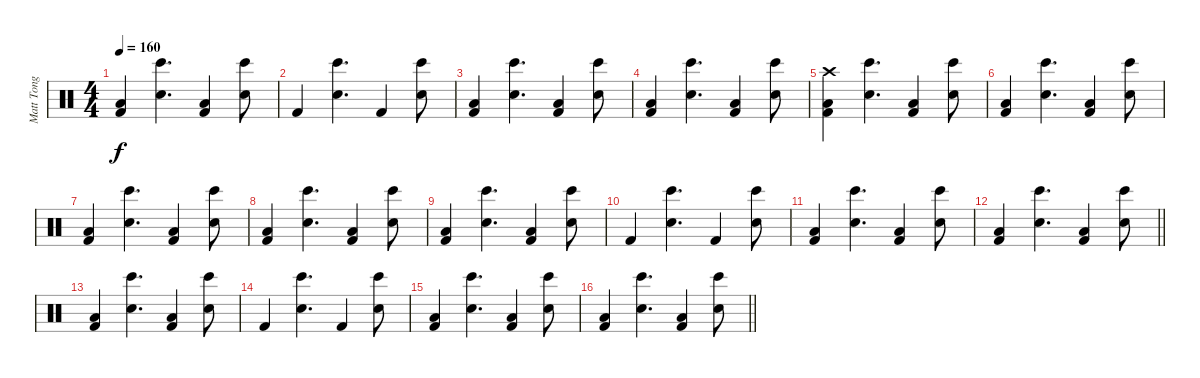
\track ("Matt Tong - Drums" "Matt Tong ") {instrument percussion}
\staff {score}
\articulation defaults
\ts (4 4)
\tempo 160
\clef neutral
\ks c
("Kick (hit) 2" "Low Floor Tom (hit)").4{dy f} ("Bongo High (hit)" "Snare (hit) 2").4{d} ("Kick (hit) 2" "Low Floor Tom (hit)").4 ("Bongo High (hit)" "Snare (hit) 2").8 |
"Kick (hit) 2".4 ("Bongo High (hit)" "Snare (hit) 2").4{d} "Kick (hit) 2".4 ("Bongo High (hit)" "Snare (hit) 2").8 |
("Kick (hit) 2" "Low Floor Tom (hit)").4 ("Bongo High (hit)" "Snare (hit) 2").4{d} ("Kick (hit) 2" "Low Floor Tom (hit)").4 ("Bongo High (hit)" "Snare (hit) 2").8 |
("Kick (hit) 2" "Low Floor Tom (hit)").4 ("Bongo High (hit)" "Snare (hit) 2").4{d} ("Kick (hit) 2" "Low Floor Tom (hit)").4 ("Bongo High (hit)" "Snare (hit) 2").8 |
("Kick (hit) 2" "Low Floor Tom (hit)" "Crash high (hit)").4 ("Bongo High (hit)" "Snare (hit) 2").4{d} ("Kick (hit) 2" "Low Floor Tom (hit)").4 ("Bongo High (hit)" "Snare (hit) 2").8 |
("Kick (hit) 2" "Low Floor Tom (hit)").4 ("Bongo High (hit)" "Snare (hit) 2").4{d} ("Kick (hit) 2" "Low Floor Tom (hit)").4 ("Bongo High (hit)" "Snare (hit) 2").8 |
("Kick (hit) 2" "Low Floor Tom (hit)").4 ("Bongo High (hit)" "Snare (hit) 2").4{d} ("Kick (hit) 2" "Low Floor Tom (hit)").4 ("Bongo High (hit)" "Snare (hit) 2").8 |
("Kick (hit) 2" "Low Floor Tom (hit)").4 ("Bongo High (hit)" "Snare (hit) 2").4{d} ("Kick (hit) 2" "Low Floor Tom (hit)").4 ("Bongo High (hit)" "Snare (hit) 2").8 |
("Kick (hit) 2" "Low Floor Tom (hit)").4 ("Bongo High (hit)" "Snare (hit) 2").4{d} ("Kick (hit) 2" "Low Floor Tom (hit)").4 ("Bongo High (hit)" "Snare (hit) 2").8 |
"Kick (hit) 2".4 ("Bongo High (hit)" "Snare (hit) 2").4{d} "Kick (hit) 2".4 ("Bongo High (hit)" "Snare (hit) 2").8 |
("Kick (hit) 2" "Low Floor Tom (hit)").4 ("Bongo High (hit)" "Snare (hit) 2").4{d} ("Kick (hit) 2" "Low Floor Tom (hit)").4 ("Bongo High (hit)" "Snare (hit) 2").8 |
\barLineRight lightlight
("Kick (hit) 2" "Low Floor Tom (hit)").4 ("Bongo High (hit)" "Snare (hit) 2").4{d} ("Kick (hit) 2" "Low Floor Tom (hit)").4 ("Bongo High (hit)" "Snare (hit) 2").8 |
("Kick (hit) 2" "Low Floor Tom (hit)").4 ("Bongo High (hit)" "Snare (hit) 2").4{d} ("Kick (hit) 2" "Low Floor Tom (hit)").4 ("Bongo High (hit)" "Snare (hit) 2").8 |
"Kick (hit) 2".4 ("Bongo High (hit)" "Snare (hit) 2").4{d} "Kick (hit) 2".4 ("Bongo High (hit)" "Snare (hit) 2").8 |
("Kick (hit) 2" "Low Floor Tom (hit)").4 ("Bongo High (hit)" "Snare (hit) 2").4{d} ("Kick (hit) 2" "Low Floor Tom (hit)").4 ("Bongo High (hit)" "Snare (hit) 2").8 |
\barLineRight lightlight
("Kick (hit) 2" "Low Floor Tom (hit)").4 ("Bongo High (hit)" "Snare (hit) 2").4{d} ("Kick (hit) 2" "Low Floor Tom (hit)").4 ("Bongo High (hit)" "Snare (hit) 2").8
